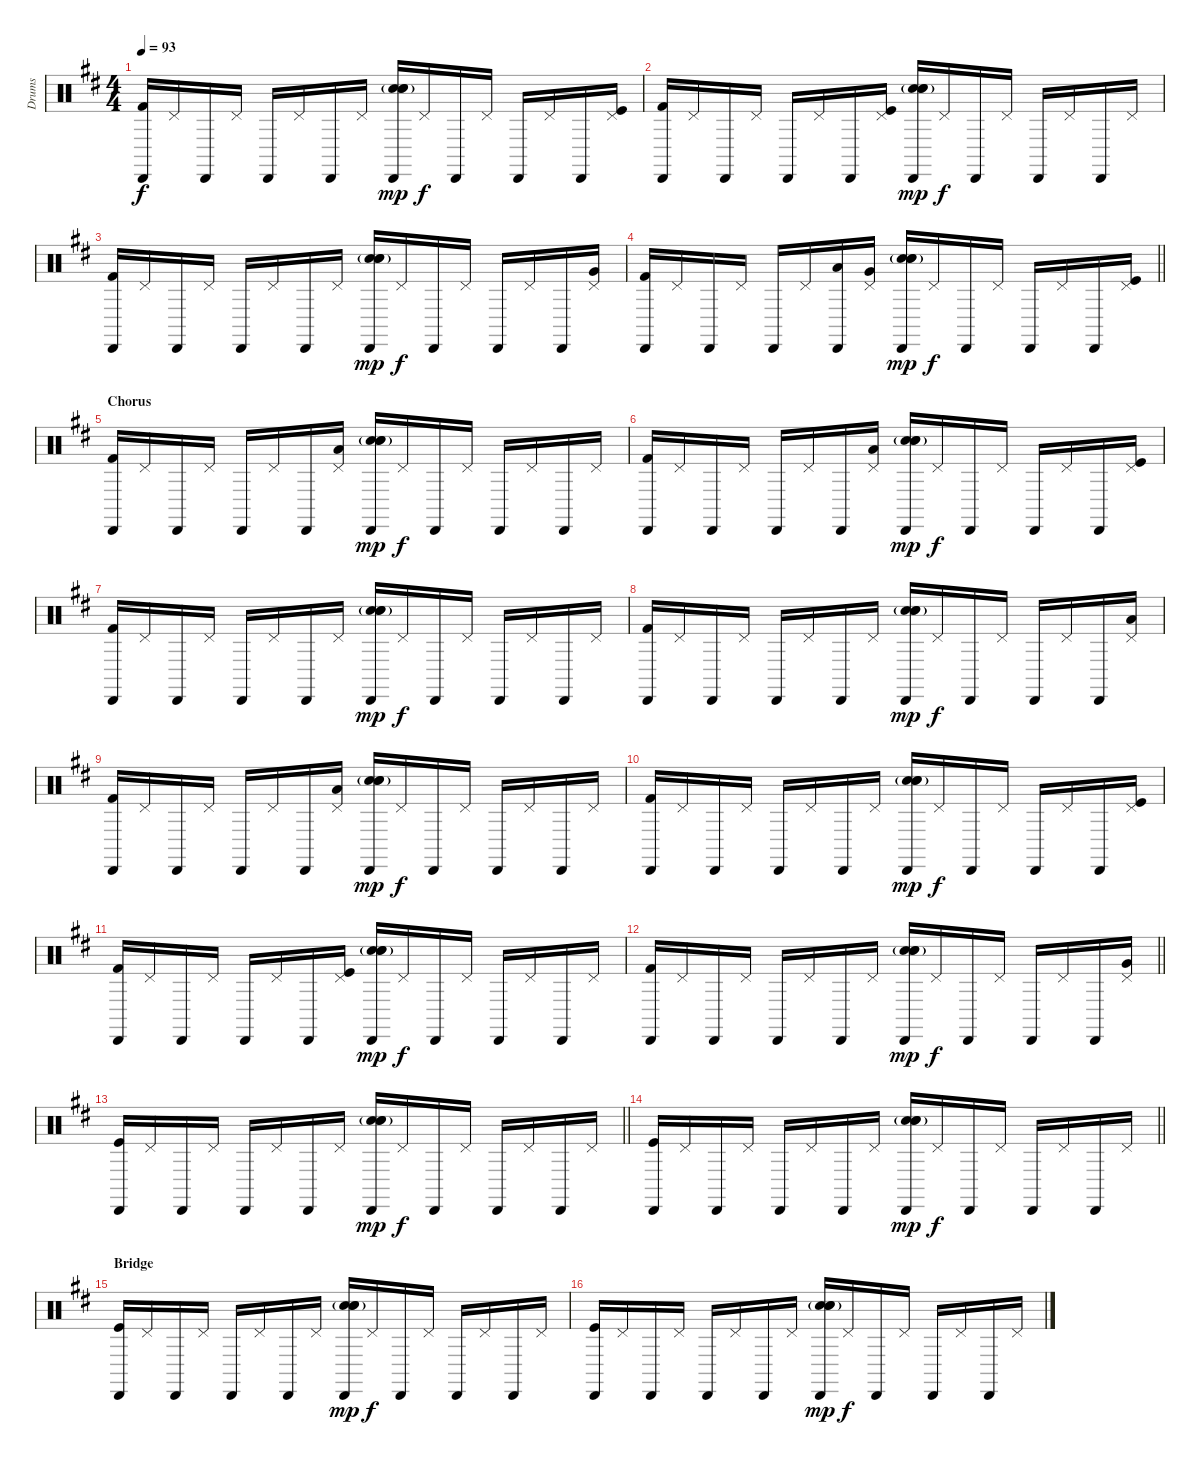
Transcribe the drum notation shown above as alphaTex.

\track ("Drums" "Drums") {instrument percussion}
\staff {score}
\articulation defaults
\ts (4 4)
\tempo 93
\clef neutral
\ks d
("Cabasa (hit)" "Kick (hit) 2").16{dy f} "Pedal Hi-Hat (hit)".16 "Cabasa (hit)".16 "Pedal Hi-Hat (hit)".16 "Cabasa (hit)".16 "Pedal Hi-Hat (hit)".16 "Cabasa (hit)".16 "Pedal Hi-Hat (hit)".16 ("Cabasa (hit)" "Snare (hit) 2"{g} "Electric Snare (hit)"{g} "Electric Snare (hit)").16{dy mp} "Pedal Hi-Hat (hit)".16{dy f} "Cabasa (hit)".16 "Pedal Hi-Hat (hit)".16 "Cabasa (hit)".16 "Pedal Hi-Hat (hit)".16 "Cabasa (hit)".16 ("Pedal Hi-Hat (hit)" "Kick (hit)").16 |
("Cabasa (hit)" "Kick (hit) 2").16 "Pedal Hi-Hat (hit)".16 "Cabasa (hit)".16 "Pedal Hi-Hat (hit)".16 "Cabasa (hit)".16 "Pedal Hi-Hat (hit)".16 "Cabasa (hit)".16 ("Pedal Hi-Hat (hit)" "Kick (hit)").16 ("Cabasa (hit)" "Snare (hit) 2"{g} "Electric Snare (hit)"{g} "Electric Snare (hit)").16{dy mp} "Pedal Hi-Hat (hit)".16{dy f} "Cabasa (hit)".16 "Pedal Hi-Hat (hit)".16 "Cabasa (hit)".16 "Pedal Hi-Hat (hit)".16 "Cabasa (hit)".16 "Pedal Hi-Hat (hit)".16 |
("Cabasa (hit)" "Kick (hit) 2").16 "Pedal Hi-Hat (hit)".16 "Cabasa (hit)".16 "Pedal Hi-Hat (hit)".16 "Cabasa (hit)".16 "Pedal Hi-Hat (hit)".16 "Cabasa (hit)".16 "Pedal Hi-Hat (hit)".16 ("Cabasa (hit)" "Snare (hit) 2"{g} "Electric Snare (hit)"{g} "Electric Snare (hit)").16{dy mp} "Pedal Hi-Hat (hit)".16{dy f} "Cabasa (hit)".16 "Pedal Hi-Hat (hit)".16 "Cabasa (hit)".16 "Pedal Hi-Hat (hit)".16 "Cabasa (hit)".16 ("Pedal Hi-Hat (hit)" "Very Low Tom (hit)").16 |
\barLineRight lightlight
("Cabasa (hit)" "Kick (hit) 2").16 "Pedal Hi-Hat (hit)".16 "Cabasa (hit)".16 "Pedal Hi-Hat (hit)".16 "Cabasa (hit)".16 "Pedal Hi-Hat (hit)".16 ("Cabasa (hit)" "Low Tom (hit)").16 ("Pedal Hi-Hat (hit)" "Very Low Tom (hit)").16 ("Cabasa (hit)" "Snare (hit) 2"{g} "Electric Snare (hit)"{g} "Electric Snare (hit)").16{dy mp} "Pedal Hi-Hat (hit)".16{dy f} "Cabasa (hit)".16 "Pedal Hi-Hat (hit)".16 "Cabasa (hit)".16 "Pedal Hi-Hat (hit)".16 "Cabasa (hit)".16 ("Pedal Hi-Hat (hit)" "Kick (hit)").16 |
\section ("" "Chorus")
("Cabasa (hit)" "Kick (hit) 2").16 "Pedal Hi-Hat (hit)".16 "Cabasa (hit)".16 "Pedal Hi-Hat (hit)".16 "Cabasa (hit)".16 "Pedal Hi-Hat (hit)".16 "Cabasa (hit)".16 ("Pedal Hi-Hat (hit)" "Low Tom (hit)").16 ("Cabasa (hit)" "Snare (hit) 2"{g} "Electric Snare (hit)"{g} "Electric Snare (hit)").16{dy mp} "Pedal Hi-Hat (hit)".16{dy f} "Cabasa (hit)".16 "Pedal Hi-Hat (hit)".16 "Cabasa (hit)".16 "Pedal Hi-Hat (hit)".16 "Cabasa (hit)".16 "Pedal Hi-Hat (hit)".16 |
("Cabasa (hit)" "Kick (hit) 2").16 "Pedal Hi-Hat (hit)".16 "Cabasa (hit)".16 "Pedal Hi-Hat (hit)".16 "Cabasa (hit)".16 "Pedal Hi-Hat (hit)".16 "Cabasa (hit)".16 ("Pedal Hi-Hat (hit)" "Low Tom (hit)").16 ("Cabasa (hit)" "Snare (hit) 2"{g} "Electric Snare (hit)"{g} "Electric Snare (hit)").16{dy mp} "Pedal Hi-Hat (hit)".16{dy f} "Cabasa (hit)".16 "Pedal Hi-Hat (hit)".16 "Cabasa (hit)".16 "Pedal Hi-Hat (hit)".16 "Cabasa (hit)".16 ("Pedal Hi-Hat (hit)" "Kick (hit)").16 |
("Cabasa (hit)" "Kick (hit) 2").16 "Pedal Hi-Hat (hit)".16 "Cabasa (hit)".16 "Pedal Hi-Hat (hit)".16 "Cabasa (hit)".16 "Pedal Hi-Hat (hit)".16 "Cabasa (hit)".16 "Pedal Hi-Hat (hit)".16 ("Cabasa (hit)" "Snare (hit) 2"{g} "Electric Snare (hit)"{g} "Electric Snare (hit)").16{dy mp} "Pedal Hi-Hat (hit)".16{dy f} "Cabasa (hit)".16 "Pedal Hi-Hat (hit)".16 "Cabasa (hit)".16 "Pedal Hi-Hat (hit)".16 "Cabasa (hit)".16 "Pedal Hi-Hat (hit)".16 |
("Cabasa (hit)" "Kick (hit) 2").16 "Pedal Hi-Hat (hit)".16 "Cabasa (hit)".16 "Pedal Hi-Hat (hit)".16 "Cabasa (hit)".16 "Pedal Hi-Hat (hit)".16 "Cabasa (hit)".16 "Pedal Hi-Hat (hit)".16 ("Cabasa (hit)" "Snare (hit) 2"{g} "Electric Snare (hit)"{g} "Electric Snare (hit)").16{dy mp} "Pedal Hi-Hat (hit)".16{dy f} "Cabasa (hit)".16 "Pedal Hi-Hat (hit)".16 "Cabasa (hit)".16 "Pedal Hi-Hat (hit)".16 "Cabasa (hit)".16 ("Pedal Hi-Hat (hit)" "Low Tom (hit)").16 |
("Cabasa (hit)" "Kick (hit) 2").16 "Pedal Hi-Hat (hit)".16 "Cabasa (hit)".16 "Pedal Hi-Hat (hit)".16 "Cabasa (hit)".16 "Pedal Hi-Hat (hit)".16 "Cabasa (hit)".16 ("Pedal Hi-Hat (hit)" "Low Tom (hit)").16 ("Cabasa (hit)" "Snare (hit) 2"{g} "Electric Snare (hit)"{g} "Electric Snare (hit)").16{dy mp} "Pedal Hi-Hat (hit)".16{dy f} "Cabasa (hit)".16 "Pedal Hi-Hat (hit)".16 "Cabasa (hit)".16 "Pedal Hi-Hat (hit)".16 "Cabasa (hit)".16 "Pedal Hi-Hat (hit)".16 |
("Cabasa (hit)" "Kick (hit) 2").16 "Pedal Hi-Hat (hit)".16 "Cabasa (hit)".16 "Pedal Hi-Hat (hit)".16 "Cabasa (hit)".16 "Pedal Hi-Hat (hit)".16 "Cabasa (hit)".16 "Pedal Hi-Hat (hit)".16 ("Cabasa (hit)" "Snare (hit) 2"{g} "Electric Snare (hit)"{g} "Electric Snare (hit)").16{dy mp} "Pedal Hi-Hat (hit)".16{dy f} "Cabasa (hit)".16 "Pedal Hi-Hat (hit)".16 "Cabasa (hit)".16 "Pedal Hi-Hat (hit)".16 "Cabasa (hit)".16 ("Pedal Hi-Hat (hit)" "Kick (hit)").16 |
("Cabasa (hit)" "Kick (hit) 2").16 "Pedal Hi-Hat (hit)".16 "Cabasa (hit)".16 "Pedal Hi-Hat (hit)".16 "Cabasa (hit)".16 "Pedal Hi-Hat (hit)".16 "Cabasa (hit)".16 ("Pedal Hi-Hat (hit)" "Kick (hit)").16 ("Cabasa (hit)" "Snare (hit) 2"{g} "Electric Snare (hit)"{g} "Electric Snare (hit)").16{dy mp} "Pedal Hi-Hat (hit)".16{dy f} "Cabasa (hit)".16 "Pedal Hi-Hat (hit)".16 "Cabasa (hit)".16 "Pedal Hi-Hat (hit)".16 "Cabasa (hit)".16 "Pedal Hi-Hat (hit)".16 |
\barLineRight lightlight
("Cabasa (hit)" "Kick (hit) 2").16 "Pedal Hi-Hat (hit)".16 "Cabasa (hit)".16 "Pedal Hi-Hat (hit)".16 "Cabasa (hit)".16 "Pedal Hi-Hat (hit)".16 "Cabasa (hit)".16 "Pedal Hi-Hat (hit)".16 ("Cabasa (hit)" "Snare (hit) 2"{g} "Electric Snare (hit)"{g} "Electric Snare (hit)").16{dy mp} "Pedal Hi-Hat (hit)".16{dy f} "Cabasa (hit)".16 "Pedal Hi-Hat (hit)".16 "Cabasa (hit)".16 "Pedal Hi-Hat (hit)".16 "Cabasa (hit)".16 ("Pedal Hi-Hat (hit)" "Very Low Tom (hit)").16 |
\barLineRight lightlight
("Cabasa (hit)" "Kick (hit)").16 "Pedal Hi-Hat (hit)".16 "Cabasa (hit)".16 "Pedal Hi-Hat (hit)".16 "Cabasa (hit)".16 "Pedal Hi-Hat (hit)".16 "Cabasa (hit)".16 "Pedal Hi-Hat (hit)".16 ("Cabasa (hit)" "Snare (hit) 2"{g} "Electric Snare (hit)"{g} "Electric Snare (hit)").16{dy mp} "Pedal Hi-Hat (hit)".16{dy f} "Cabasa (hit)".16 "Pedal Hi-Hat (hit)".16 "Cabasa (hit)".16 "Pedal Hi-Hat (hit)".16 "Cabasa (hit)".16 "Pedal Hi-Hat (hit)".16 |
\barLineRight lightlight
("Cabasa (hit)" "Kick (hit)").16 "Pedal Hi-Hat (hit)".16 "Cabasa (hit)".16 "Pedal Hi-Hat (hit)".16 "Cabasa (hit)".16 "Pedal Hi-Hat (hit)".16 "Cabasa (hit)".16 "Pedal Hi-Hat (hit)".16 ("Cabasa (hit)" "Snare (hit) 2"{g} "Electric Snare (hit)"{g} "Electric Snare (hit)").16{dy mp} "Pedal Hi-Hat (hit)".16{dy f} "Cabasa (hit)".16 "Pedal Hi-Hat (hit)".16 "Cabasa (hit)".16 "Pedal Hi-Hat (hit)".16 "Cabasa (hit)".16 "Pedal Hi-Hat (hit)".16 |
\section ("" "Bridge")
("Cabasa (hit)" "Kick (hit)").16 "Pedal Hi-Hat (hit)".16 "Cabasa (hit)".16 "Pedal Hi-Hat (hit)".16 "Cabasa (hit)".16 "Pedal Hi-Hat (hit)".16 "Cabasa (hit)".16 "Pedal Hi-Hat (hit)".16 ("Cabasa (hit)" "Snare (hit) 2"{g} "Electric Snare (hit)"{g} "Electric Snare (hit)").16{dy mp} "Pedal Hi-Hat (hit)".16{dy f} "Cabasa (hit)".16 "Pedal Hi-Hat (hit)".16 "Cabasa (hit)".16 "Pedal Hi-Hat (hit)".16 "Cabasa (hit)".16 "Pedal Hi-Hat (hit)".16 |
("Cabasa (hit)" "Kick (hit)").16 "Pedal Hi-Hat (hit)".16 "Cabasa (hit)".16 "Pedal Hi-Hat (hit)".16 "Cabasa (hit)".16 "Pedal Hi-Hat (hit)".16 "Cabasa (hit)".16 "Pedal Hi-Hat (hit)".16 ("Cabasa (hit)" "Snare (hit) 2"{g} "Electric Snare (hit)"{g} "Electric Snare (hit)").16{dy mp} "Pedal Hi-Hat (hit)".16{dy f} "Cabasa (hit)".16 "Pedal Hi-Hat (hit)".16 "Cabasa (hit)".16 "Pedal Hi-Hat (hit)".16 "Cabasa (hit)".16 "Pedal Hi-Hat (hit)".16
